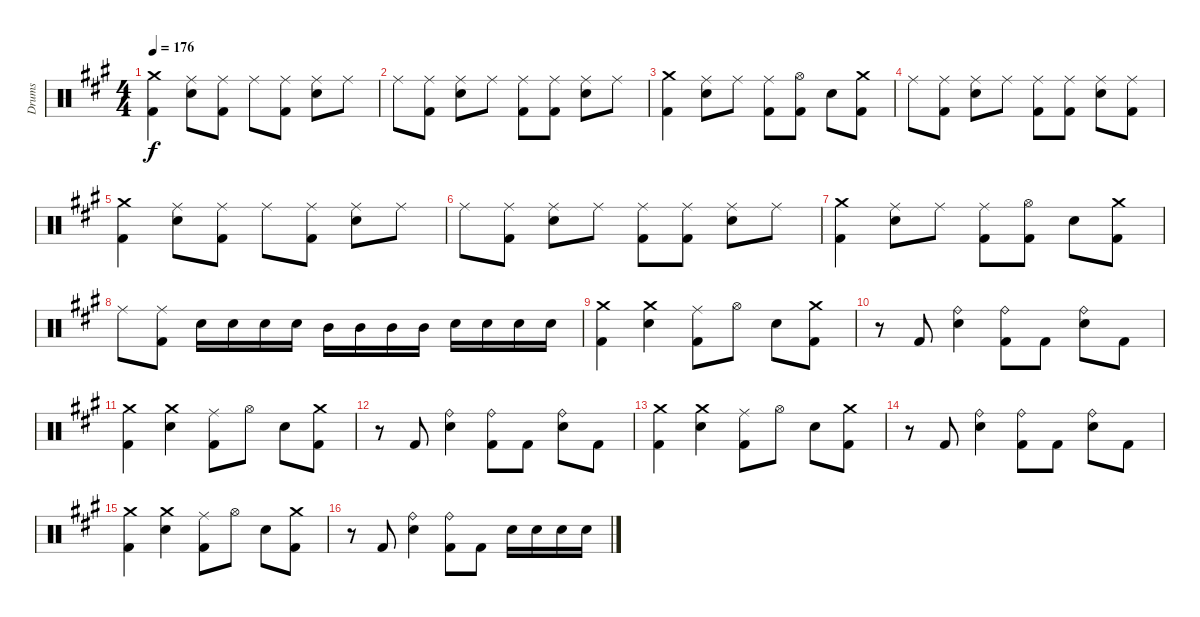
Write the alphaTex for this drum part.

\track ("Drums" "Drums") {instrument percussion}
\staff {score}
\articulation defaults
\ts (4 4)
\tempo 176
\clef neutral
\ks a
("Crash medium (hit)" "Kick (hit) 2").4{dy f} ("Ride (middle)" "Electric Snare (hit)").8 ("Ride (middle)" "Kick (hit) 2").8 "Ride (middle)".8 ("Ride (middle)" "Kick (hit) 2").8 ("Ride (middle)" "Electric Snare (hit)").8 "Ride (middle)".8 |
"Ride (middle)".8 ("Ride (middle)" "Kick (hit) 2").8 ("Ride (middle)" "Electric Snare (hit)").8 "Ride (middle)".8 ("Ride (middle)" "Kick (hit) 2").8 ("Ride (middle)" "Kick (hit) 2").8 ("Ride (middle)" "Electric Snare (hit)").8 "Ride (middle)".8 |
("Crash medium (hit)" "Kick (hit) 2").4 ("Ride (middle)" "Electric Snare (hit)").8 "Ride (middle)".8 ("Ride (middle)" "Kick (hit) 2").8 ("Hi-Hat (open)" "Kick (hit) 2").8 "Electric Snare (hit)".8 ("Crash medium (hit)" "Kick (hit) 2").8 |
"Ride (middle)".8 ("Ride (middle)" "Kick (hit) 2").8 ("Ride (middle)" "Electric Snare (hit)").8 "Ride (middle)".8 ("Ride (middle)" "Kick (hit) 2").8 ("Ride (middle)" "Kick (hit) 2").8 ("Ride (middle)" "Electric Snare (hit)").8 ("Ride (middle)" "Kick (hit) 2").8 |
("Crash medium (hit)" "Kick (hit) 2").4 ("Ride (middle)" "Electric Snare (hit)").8 ("Ride (middle)" "Kick (hit) 2").8 "Ride (middle)".8 ("Ride (middle)" "Kick (hit) 2").8 ("Ride (middle)" "Electric Snare (hit)").8 "Ride (middle)".8 |
"Ride (middle)".8 ("Ride (middle)" "Kick (hit) 2").8 ("Ride (middle)" "Electric Snare (hit)").8 "Ride (middle)".8 ("Ride (middle)" "Kick (hit) 2").8 ("Ride (middle)" "Kick (hit) 2").8 ("Ride (middle)" "Electric Snare (hit)").8 "Ride (middle)".8 |
("Crash medium (hit)" "Kick (hit) 2").4 ("Ride (middle)" "Electric Snare (hit)").8 "Ride (middle)".8 ("Ride (middle)" "Kick (hit) 2").8 ("Hi-Hat (open)" "Kick (hit) 2").8 "Electric Snare (hit)".8 ("Crash medium (hit)" "Kick (hit) 2").8 |
"Ride (middle)".8 ("Ride (middle)" "Kick (hit) 2").8 "Electric Snare (hit)".16 "Electric Snare (hit)".16 "Electric Snare (hit)".16 "Electric Snare (hit)".16 "Mid Tom (hit)".16 "Mid Tom (hit)".16 "Mid Tom (hit)".16 "Mid Tom (hit)".16 "Electric Snare (hit)".16 "Electric Snare (hit)".16 "Electric Snare (hit)".16 "Electric Snare (hit)".16 |
("Crash medium (hit)" "Kick (hit) 2").4 ("Crash medium (hit)" "Electric Snare (hit)").4 ("Ride (middle)" "Kick (hit) 2").8 "Hi-Hat (open)".8 "Electric Snare (hit)".8 ("Crash medium (hit)" "Kick (hit) 2").8 |
r.8 "Kick (hit) 2".8 ("Ride (bell)" "Electric Snare (hit)").4 ("Ride (bell)" "Kick (hit) 2").8 "Kick (hit) 2".8 ("Ride (bell)" "Electric Snare (hit)").8 "Kick (hit) 2".8 |
("Crash medium (hit)" "Kick (hit) 2").4 ("Crash medium (hit)" "Electric Snare (hit)").4 ("Ride (middle)" "Kick (hit) 2").8 "Hi-Hat (open)".8 "Electric Snare (hit)".8 ("Crash medium (hit)" "Kick (hit) 2").8 |
r.8 "Kick (hit) 2".8 ("Ride (bell)" "Electric Snare (hit)").4 ("Ride (bell)" "Kick (hit) 2").8 "Kick (hit) 2".8 ("Ride (bell)" "Electric Snare (hit)").8 "Kick (hit) 2".8 |
("Crash medium (hit)" "Kick (hit) 2").4 ("Crash medium (hit)" "Electric Snare (hit)").4 ("Ride (middle)" "Kick (hit) 2").8 "Hi-Hat (open)".8 "Electric Snare (hit)".8 ("Crash medium (hit)" "Kick (hit) 2").8 |
r.8 "Kick (hit) 2".8 ("Ride (bell)" "Electric Snare (hit)").4 ("Ride (bell)" "Kick (hit) 2").8 "Kick (hit) 2".8 ("Ride (bell)" "Electric Snare (hit)").8 "Kick (hit) 2".8 |
("Crash medium (hit)" "Kick (hit) 2").4 ("Crash medium (hit)" "Electric Snare (hit)").4 ("Ride (middle)" "Kick (hit) 2").8 "Hi-Hat (open)".8 "Electric Snare (hit)".8 ("Crash medium (hit)" "Kick (hit) 2").8 |
r.8 "Kick (hit) 2".8 ("Ride (bell)" "Electric Snare (hit)").4 ("Ride (bell)" "Kick (hit) 2").8 "Kick (hit) 2".8 "Electric Snare (hit)".16 "Electric Snare (hit)".16 "Electric Snare (hit)".16 "Electric Snare (hit)".16
